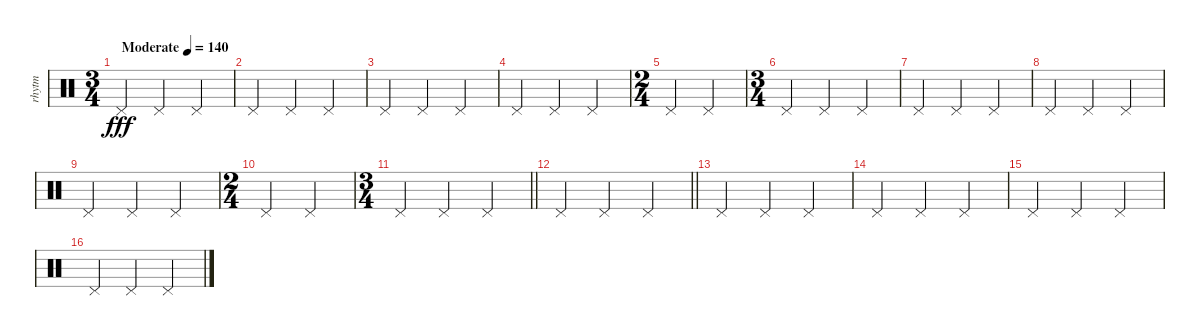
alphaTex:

\track ("rhytm" "rhytm") {instrument percussion}
\staff {score}
\articulation defaults
\ts (3 4)
\tempo (140 "Moderate")
\clef neutral
\ks c "Pedal Hi-Hat (hit)".4{dy fff} "Pedal Hi-Hat (hit)".4 "Pedal Hi-Hat (hit)".4
|
"Pedal Hi-Hat (hit)".4 "Pedal Hi-Hat (hit)".4 "Pedal Hi-Hat (hit)".4 |
"Pedal Hi-Hat (hit)".4 "Pedal Hi-Hat (hit)".4 "Pedal Hi-Hat (hit)".4 |
"Pedal Hi-Hat (hit)".4 "Pedal Hi-Hat (hit)".4 "Pedal Hi-Hat (hit)".4 |
\ts (2 4)
"Pedal Hi-Hat (hit)".4 "Pedal Hi-Hat (hit)".4 |
\ts (3 4)
"Pedal Hi-Hat (hit)".4 "Pedal Hi-Hat (hit)".4 "Pedal Hi-Hat (hit)".4 |
"Pedal Hi-Hat (hit)".4 "Pedal Hi-Hat (hit)".4 "Pedal Hi-Hat (hit)".4 |
"Pedal Hi-Hat (hit)".4 "Pedal Hi-Hat (hit)".4 "Pedal Hi-Hat (hit)".4 |
"Pedal Hi-Hat (hit)".4 "Pedal Hi-Hat (hit)".4 "Pedal Hi-Hat (hit)".4 |
\ts (2 4)
"Pedal Hi-Hat (hit)".4 "Pedal Hi-Hat (hit)".4 |
\ts (3 4)
\barLineRight lightlight "Pedal Hi-Hat (hit)".4 "Pedal Hi-Hat (hit)".4 "Pedal Hi-Hat (hit)".4
|
\barLineRight lightlight "Pedal Hi-Hat (hit)".4 "Pedal Hi-Hat (hit)".4 "Pedal Hi-Hat (hit)".4
|
"Pedal Hi-Hat (hit)".4 "Pedal Hi-Hat (hit)".4 "Pedal Hi-Hat (hit)".4 |
"Pedal Hi-Hat (hit)".4 "Pedal Hi-Hat (hit)".4 "Pedal Hi-Hat (hit)".4 |
"Pedal Hi-Hat (hit)".4 "Pedal Hi-Hat (hit)".4 "Pedal Hi-Hat (hit)".4 |
"Pedal Hi-Hat (hit)".4 "Pedal Hi-Hat (hit)".4 "Pedal Hi-Hat (hit)".4
